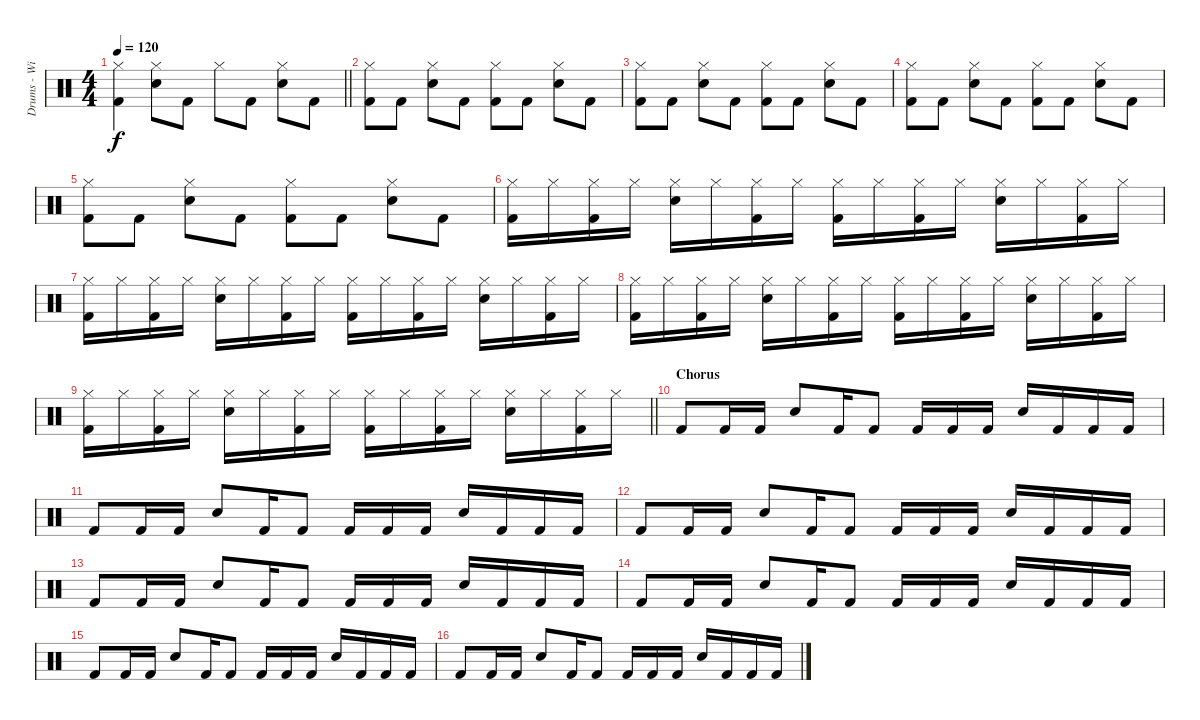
\track ("Drums - Willi Wurm" "Drums - Wi") {instrument percussion}
\staff {score}
\articulation defaults
\ts (4 4)
\tempo 120
\clef neutral
\barLineRight lightlight
\ks c
("Hi-Hat (closed)" "Kick (hit) 2").4{dy f} ("Hi-Hat (closed)" "Snare (hit) 2").8 "Kick (hit) 2".8 "Hi-Hat (closed)".8 "Kick (hit) 2".8 ("Hi-Hat (closed)" "Snare (hit) 2").8 "Kick (hit) 2".8 |
("Hi-Hat (closed)" "Kick (hit) 2").8 "Kick (hit) 2".8 ("Hi-Hat (closed)" "Snare (hit) 2").8 "Kick (hit) 2".8 ("Hi-Hat (closed)" "Kick (hit) 2").8 "Kick (hit) 2".8 ("Hi-Hat (closed)" "Snare (hit) 2").8 "Kick (hit) 2".8 |
("Hi-Hat (closed)" "Kick (hit) 2").8 "Kick (hit) 2".8 ("Hi-Hat (closed)" "Snare (hit) 2").8 "Kick (hit) 2".8 ("Hi-Hat (closed)" "Kick (hit) 2").8 "Kick (hit) 2".8 ("Hi-Hat (closed)" "Snare (hit) 2").8 "Kick (hit) 2".8 |
("Hi-Hat (closed)" "Kick (hit) 2").8 "Kick (hit) 2".8 ("Hi-Hat (closed)" "Snare (hit) 2").8 "Kick (hit) 2".8 ("Hi-Hat (closed)" "Kick (hit) 2").8 "Kick (hit) 2".8 ("Hi-Hat (closed)" "Snare (hit) 2").8 "Kick (hit) 2".8 |
("Hi-Hat (closed)" "Kick (hit) 2").8 "Kick (hit) 2".8 ("Hi-Hat (closed)" "Snare (hit) 2").8 "Kick (hit) 2".8 ("Hi-Hat (closed)" "Kick (hit) 2").8 "Kick (hit) 2".8 ("Hi-Hat (closed)" "Snare (hit) 2").8 "Kick (hit) 2".8 |
("Hi-Hat (closed)" "Kick (hit) 2").16 "Hi-Hat (closed)".16 ("Hi-Hat (closed)" "Kick (hit) 2").16 "Hi-Hat (closed)".16 ("Hi-Hat (closed)" "Snare (hit) 2").16 "Hi-Hat (closed)".16 ("Hi-Hat (closed)" "Kick (hit) 2").16 "Hi-Hat (closed)".16 ("Hi-Hat (closed)" "Kick (hit) 2").16 "Hi-Hat (closed)".16 ("Hi-Hat (closed)" "Kick (hit) 2").16 "Hi-Hat (closed)".16 ("Hi-Hat (closed)" "Snare (hit) 2").16 "Hi-Hat (closed)".16 ("Hi-Hat (closed)" "Kick (hit) 2").16 "Hi-Hat (closed)".16 |
("Hi-Hat (closed)" "Kick (hit) 2").16 "Hi-Hat (closed)".16 ("Hi-Hat (closed)" "Kick (hit) 2").16 "Hi-Hat (closed)".16 ("Hi-Hat (closed)" "Snare (hit) 2").16 "Hi-Hat (closed)".16 ("Hi-Hat (closed)" "Kick (hit) 2").16 "Hi-Hat (closed)".16 ("Hi-Hat (closed)" "Kick (hit) 2").16 "Hi-Hat (closed)".16 ("Hi-Hat (closed)" "Kick (hit) 2").16 "Hi-Hat (closed)".16 ("Hi-Hat (closed)" "Snare (hit) 2").16 "Hi-Hat (closed)".16 ("Hi-Hat (closed)" "Kick (hit) 2").16 "Hi-Hat (closed)".16 |
("Hi-Hat (closed)" "Kick (hit) 2").16 "Hi-Hat (closed)".16 ("Hi-Hat (closed)" "Kick (hit) 2").16 "Hi-Hat (closed)".16 ("Hi-Hat (closed)" "Snare (hit) 2").16 "Hi-Hat (closed)".16 ("Hi-Hat (closed)" "Kick (hit) 2").16 "Hi-Hat (closed)".16 ("Hi-Hat (closed)" "Kick (hit) 2").16 "Hi-Hat (closed)".16 ("Hi-Hat (closed)" "Kick (hit) 2").16 "Hi-Hat (closed)".16 ("Hi-Hat (closed)" "Snare (hit) 2").16 "Hi-Hat (closed)".16 ("Hi-Hat (closed)" "Kick (hit) 2").16 "Hi-Hat (closed)".16 |
\barLineRight lightlight
("Hi-Hat (closed)" "Kick (hit) 2").16 "Hi-Hat (closed)".16 ("Hi-Hat (closed)" "Kick (hit) 2").16 "Hi-Hat (closed)".16 ("Hi-Hat (closed)" "Snare (hit) 2").16 "Hi-Hat (closed)".16 ("Hi-Hat (closed)" "Kick (hit) 2").16 "Hi-Hat (closed)".16 ("Hi-Hat (closed)" "Kick (hit) 2").16 "Hi-Hat (closed)".16 ("Hi-Hat (closed)" "Kick (hit) 2").16 "Hi-Hat (closed)".16 ("Hi-Hat (closed)" "Snare (hit) 2").16 "Hi-Hat (closed)".16 ("Hi-Hat (closed)" "Kick (hit) 2").16 "Hi-Hat (closed)".16 |
\section ("" "Chorus")
"Kick (hit) 2".8 "Kick (hit) 2".16 "Kick (hit) 2".16 "Snare (hit) 2".8 "Kick (hit) 2".16 "Kick (hit) 2".8 "Kick (hit) 2".16 "Kick (hit) 2".16 "Kick (hit) 2".16 "Snare (hit) 2".16 "Kick (hit) 2".16 "Kick (hit) 2".16 "Kick (hit) 2".16 |
"Kick (hit) 2".8 "Kick (hit) 2".16 "Kick (hit) 2".16 "Snare (hit) 2".8 "Kick (hit) 2".16 "Kick (hit) 2".8 "Kick (hit) 2".16 "Kick (hit) 2".16 "Kick (hit) 2".16 "Snare (hit) 2".16 "Kick (hit) 2".16 "Kick (hit) 2".16 "Kick (hit) 2".16 |
"Kick (hit) 2".8 "Kick (hit) 2".16 "Kick (hit) 2".16 "Snare (hit) 2".8 "Kick (hit) 2".16 "Kick (hit) 2".8 "Kick (hit) 2".16 "Kick (hit) 2".16 "Kick (hit) 2".16 "Snare (hit) 2".16 "Kick (hit) 2".16 "Kick (hit) 2".16 "Kick (hit) 2".16 |
"Kick (hit) 2".8 "Kick (hit) 2".16 "Kick (hit) 2".16 "Snare (hit) 2".8 "Kick (hit) 2".16 "Kick (hit) 2".8 "Kick (hit) 2".16 "Kick (hit) 2".16 "Kick (hit) 2".16 "Snare (hit) 2".16 "Kick (hit) 2".16 "Kick (hit) 2".16 "Kick (hit) 2".16 |
"Kick (hit) 2".8 "Kick (hit) 2".16 "Kick (hit) 2".16 "Snare (hit) 2".8 "Kick (hit) 2".16 "Kick (hit) 2".8 "Kick (hit) 2".16 "Kick (hit) 2".16 "Kick (hit) 2".16 "Snare (hit) 2".16 "Kick (hit) 2".16 "Kick (hit) 2".16 "Kick (hit) 2".16 |
"Kick (hit) 2".8 "Kick (hit) 2".16 "Kick (hit) 2".16 "Snare (hit) 2".8 "Kick (hit) 2".16 "Kick (hit) 2".8 "Kick (hit) 2".16 "Kick (hit) 2".16 "Kick (hit) 2".16 "Snare (hit) 2".16 "Kick (hit) 2".16 "Kick (hit) 2".16 "Kick (hit) 2".16 |
"Kick (hit) 2".8 "Kick (hit) 2".16 "Kick (hit) 2".16 "Snare (hit) 2".8 "Kick (hit) 2".16 "Kick (hit) 2".8 "Kick (hit) 2".16 "Kick (hit) 2".16 "Kick (hit) 2".16 "Snare (hit) 2".16 "Kick (hit) 2".16 "Kick (hit) 2".16 "Kick (hit) 2".16
